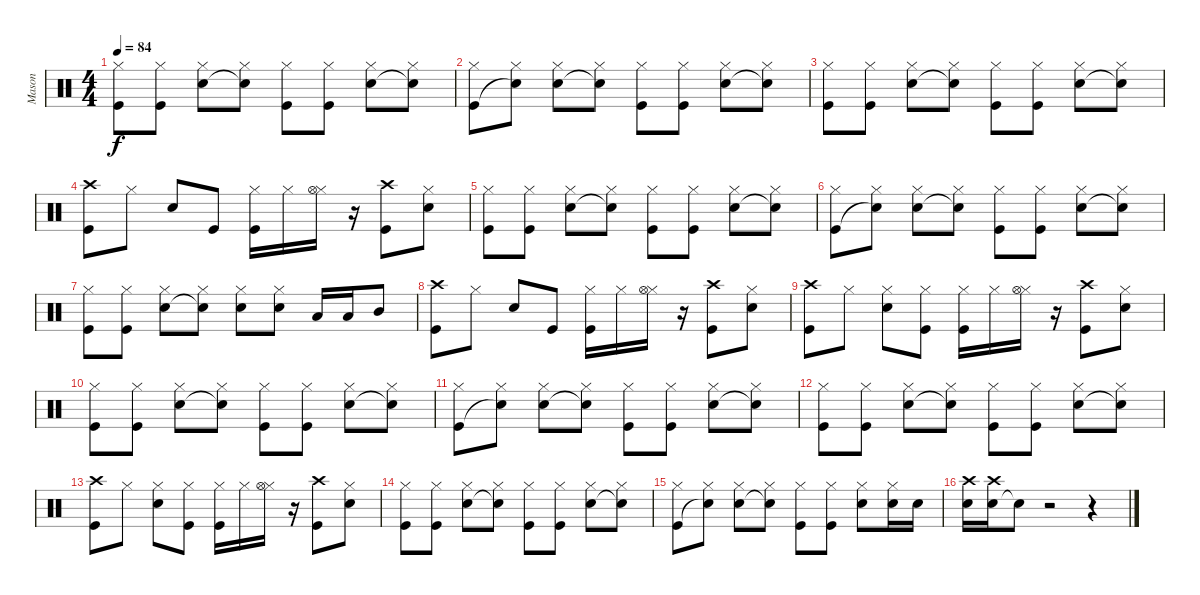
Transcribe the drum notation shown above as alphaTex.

\track ("Mason" "Mason") {instrument percussion}
\staff {score}
\articulation defaults
\ts (4 4)
\tempo 84
\clef neutral
\ks c
("Kick (hit)" "Hi-Hat (closed)").8{dy f} ("Kick (hit)" "Hi-Hat (closed)").8 ("Snare (hit) 2" "Hi-Hat (closed)").8 ("Snare (hit)"{t} "Hi-Hat (closed)").8 ("Kick (hit)" "Hi-Hat (closed)").8 ("Kick (hit)" "Hi-Hat (closed)").8 ("Snare (hit) 2" "Hi-Hat (closed)").8 ("Snare (hit)"{t} "Hi-Hat (closed)").8 |
("Kick (hit)" "Hi-Hat (closed)").8 ("Snare (hit)"{t} "Hi-Hat (closed)").8 ("Snare (hit) 2" "Hi-Hat (closed)").8 ("Snare (hit)"{t} "Hi-Hat (closed)").8 ("Kick (hit)" "Hi-Hat (closed)").8 ("Kick (hit)" "Hi-Hat (closed)").8 ("Snare (hit) 2" "Hi-Hat (closed)").8 ("Snare (hit)"{t} "Hi-Hat (closed)").8 |
("Kick (hit)" "Hi-Hat (closed)").8 ("Kick (hit)" "Hi-Hat (closed)").8 ("Snare (hit) 2" "Hi-Hat (closed)").8 ("Snare (hit)"{t} "Hi-Hat (closed)").8 ("Kick (hit)" "Hi-Hat (closed)").8 ("Kick (hit)" "Hi-Hat (closed)").8 ("Snare (hit) 2" "Hi-Hat (closed)").8 ("Snare (hit)"{t} "Hi-Hat (closed)").8 |
("Kick (hit)" "Crash high (hit)").8 "Hi-Hat (closed)".8 "Snare (hit) 2".8 "Kick (hit)".8 ("Kick (hit)" "Hi-Hat (closed)").16 "Hi-Hat (closed)".16 ("Hi-Hat (closed)" "Hi-Hat (open)").16 r.16 ("Kick (hit)" "Crash high (hit)").8 ("Snare (hit) 2" "Hi-Hat (closed)").8 |
("Kick (hit)" "Hi-Hat (closed)").8 ("Kick (hit)" "Hi-Hat (closed)").8 ("Snare (hit) 2" "Hi-Hat (closed)").8 ("Snare (hit)"{t} "Hi-Hat (closed)").8 ("Kick (hit)" "Hi-Hat (closed)").8 ("Kick (hit)" "Hi-Hat (closed)").8 ("Snare (hit) 2" "Hi-Hat (closed)").8 ("Snare (hit)"{t} "Hi-Hat (closed)").8 |
("Kick (hit)" "Hi-Hat (closed)").8 ("Snare (hit)"{t} "Hi-Hat (closed)").8 ("Snare (hit) 2" "Hi-Hat (closed)").8 ("Snare (hit)"{t} "Hi-Hat (closed)").8 ("Kick (hit)" "Hi-Hat (closed)").8 ("Kick (hit)" "Hi-Hat (closed)").8 ("Snare (hit) 2" "Hi-Hat (closed)").8 ("Snare (hit)"{t} "Hi-Hat (closed)").8 |
("Kick (hit)" "Hi-Hat (closed)").8 ("Kick (hit)" "Hi-Hat (closed)").8 ("Snare (hit) 2" "Hi-Hat (closed)").8 ("Snare (hit)"{t} "Hi-Hat (closed)").8 ("Snare (hit) 2" "Hi-Hat (closed)").8 ("Snare (hit) 2" "Hi-Hat (closed)").8 "Low Tom (hit)".16 "Low Tom (hit)".16 "Mid Tom (hit)".8 |
("Kick (hit)" "Crash high (hit)").8 "Hi-Hat (closed)".8 "Snare (hit) 2".8 "Kick (hit)".8 ("Kick (hit)" "Hi-Hat (closed)").16 "Hi-Hat (closed)".16 ("Hi-Hat (closed)" "Hi-Hat (open)").16 r.16 ("Kick (hit)" "Crash high (hit)").8 ("Snare (hit) 2" "Hi-Hat (closed)").8 |
("Kick (hit)" "Crash high (hit)").8 "Hi-Hat (closed)".8 ("Snare (hit) 2" "Hi-Hat (closed)").8 ("Kick (hit)" "Hi-Hat (closed)").8 ("Kick (hit)" "Hi-Hat (closed)").16 "Hi-Hat (closed)".16 ("Hi-Hat (closed)" "Hi-Hat (open)").16 r.16 ("Kick (hit)" "Crash high (hit)").8 ("Snare (hit) 2" "Hi-Hat (closed)").8 |
("Kick (hit)" "Hi-Hat (closed)").8 ("Kick (hit)" "Hi-Hat (closed)").8 ("Snare (hit) 2" "Hi-Hat (closed)").8 ("Snare (hit)"{t} "Hi-Hat (closed)").8 ("Kick (hit)" "Hi-Hat (closed)").8 ("Kick (hit)" "Hi-Hat (closed)").8 ("Snare (hit) 2" "Hi-Hat (closed)").8 ("Snare (hit)"{t} "Hi-Hat (closed)").8 |
("Kick (hit)" "Hi-Hat (closed)").8 ("Snare (hit)"{t} "Hi-Hat (closed)").8 ("Snare (hit) 2" "Hi-Hat (closed)").8 ("Snare (hit)"{t} "Hi-Hat (closed)").8 ("Kick (hit)" "Hi-Hat (closed)").8 ("Kick (hit)" "Hi-Hat (closed)").8 ("Snare (hit) 2" "Hi-Hat (closed)").8 ("Snare (hit)"{t} "Hi-Hat (closed)").8 |
("Kick (hit)" "Hi-Hat (closed)").8 ("Kick (hit)" "Hi-Hat (closed)").8 ("Snare (hit) 2" "Hi-Hat (closed)").8 ("Snare (hit)"{t} "Hi-Hat (closed)").8 ("Kick (hit)" "Hi-Hat (closed)").8 ("Kick (hit)" "Hi-Hat (closed)").8 ("Snare (hit) 2" "Hi-Hat (closed)").8 ("Snare (hit)"{t} "Hi-Hat (closed)").8 |
("Kick (hit)" "Crash high (hit)").8 "Hi-Hat (closed)".8 ("Snare (hit) 2" "Hi-Hat (closed)").8 ("Kick (hit)" "Hi-Hat (closed)").8 ("Kick (hit)" "Hi-Hat (closed)").16 "Hi-Hat (closed)".16 ("Hi-Hat (closed)" "Hi-Hat (open)").16 r.16 ("Kick (hit)" "Crash high (hit)").8 ("Snare (hit) 2" "Hi-Hat (closed)").8 |
("Kick (hit)" "Hi-Hat (closed)").8 ("Kick (hit)" "Hi-Hat (closed)").8 ("Snare (hit) 2" "Hi-Hat (closed)").8 ("Snare (hit)"{t} "Hi-Hat (closed)").8 ("Kick (hit)" "Hi-Hat (closed)").8 ("Kick (hit)" "Hi-Hat (closed)").8 ("Snare (hit) 2" "Hi-Hat (closed)").8 ("Snare (hit)"{t} "Hi-Hat (closed)").8 |
("Kick (hit)" "Hi-Hat (closed)").8 ("Snare (hit)"{t} "Hi-Hat (closed)").8 ("Snare (hit) 2" "Hi-Hat (closed)").8 ("Snare (hit)"{t} "Hi-Hat (closed)").8 ("Kick (hit)" "Hi-Hat (closed)").8 ("Kick (hit)" "Hi-Hat (closed)").8 ("Snare (hit) 2" "Hi-Hat (closed)").8 ("Snare (hit) 2" "Hi-Hat (closed)").16 "Snare (hit) 2".16 |
("Snare (hit) 2" "Crash high (hit)").16 ("Snare (hit) 2" "Crash high (hit)").16 "Snare (hit)"{t}.8 r.2 r.4
